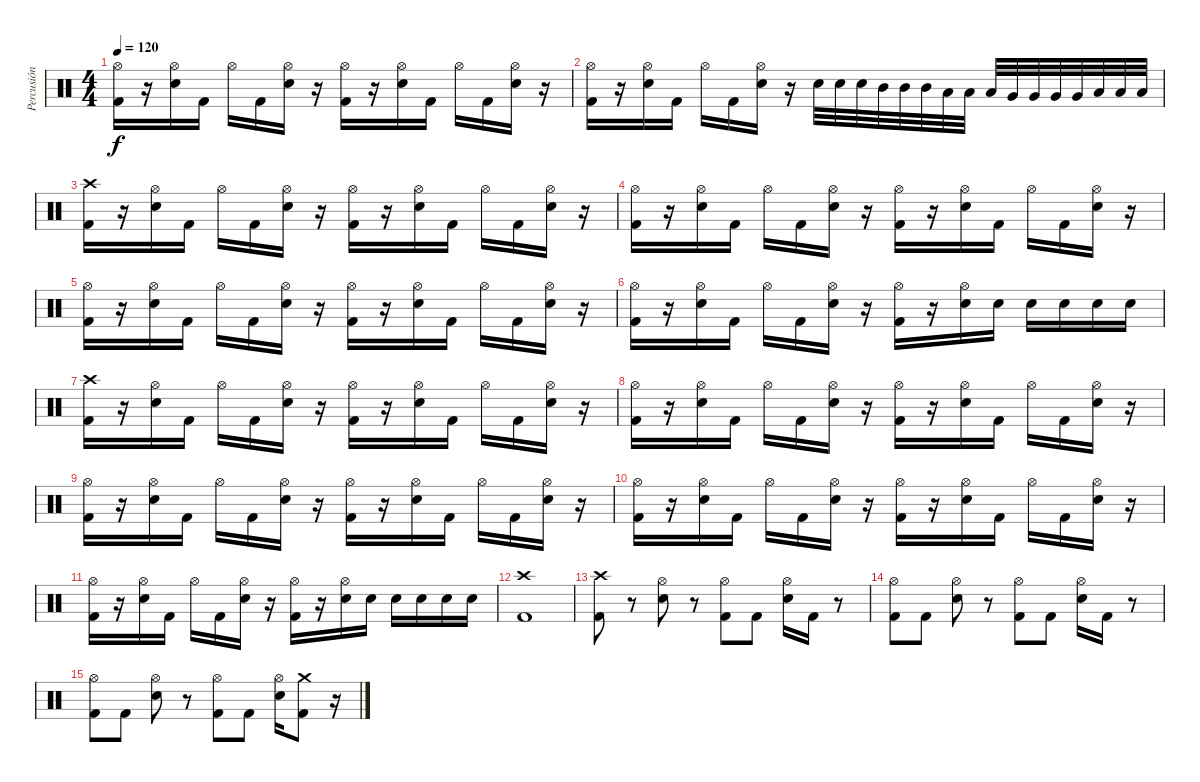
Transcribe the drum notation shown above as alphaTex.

\track ("Percusión" "Percusión") {instrument percussion}
\staff {score}
\articulation defaults
\ts (4 4)
\tempo 120
\clef neutral
\ks c
("Hi-Hat (open)" "Kick (hit) 2").16{dy f} r.16 ("Hi-Hat (open)" "Electric Snare (hit)").16 "Kick (hit) 2".16 "Hi-Hat (open)".16 "Kick (hit) 2".16 ("Hi-Hat (open)" "Electric Snare (hit)").16 r.16 ("Hi-Hat (open)" "Kick (hit) 2").16 r.16 ("Hi-Hat (open)" "Electric Snare (hit)").16 "Kick (hit) 2".16 "Hi-Hat (open)".16 "Kick (hit) 2".16 ("Hi-Hat (open)" "Electric Snare (hit)").16 r.16 |
("Hi-Hat (open)" "Kick (hit) 2").16 r.16 ("Hi-Hat (open)" "Electric Snare (hit)").16 "Kick (hit) 2".16 "Hi-Hat (open)".16 "Kick (hit) 2".16 ("Hi-Hat (open)" "Electric Snare (hit)").16 r.16 "Electric Snare (hit)".32 "Electric Snare (hit)".32 "Electric Snare (hit)".32 "Mid Tom (hit)".32 "Mid Tom (hit)".32 "Mid Tom (hit)".32 "Low Tom (hit)".32 "Low Tom (hit)".32 "Low Tom (hit)".32 "Very Low Tom (hit)".32 "Very Low Tom (hit)".32 "Very Low Tom (hit)".32 "Very Low Tom (hit)".32 "Low Floor Tom (hit)".32 "Low Floor Tom (hit)".32 "Low Floor Tom (hit)".32 |
("Crash high (hit)" "Kick (hit) 2").16 r.16 ("Hi-Hat (open)" "Electric Snare (hit)").16 "Kick (hit) 2".16 "Hi-Hat (open)".16 "Kick (hit) 2".16 ("Hi-Hat (open)" "Electric Snare (hit)").16 r.16 ("Hi-Hat (open)" "Kick (hit) 2").16 r.16 ("Hi-Hat (open)" "Electric Snare (hit)").16 "Kick (hit) 2".16 "Hi-Hat (open)".16 "Kick (hit) 2".16 ("Hi-Hat (open)" "Electric Snare (hit)").16 r.16 |
("Hi-Hat (open)" "Kick (hit) 2").16 r.16 ("Hi-Hat (open)" "Electric Snare (hit)").16 "Kick (hit) 2".16 "Hi-Hat (open)".16 "Kick (hit) 2".16 ("Hi-Hat (open)" "Electric Snare (hit)").16 r.16 ("Hi-Hat (open)" "Kick (hit) 2").16 r.16 ("Hi-Hat (open)" "Electric Snare (hit)").16 "Kick (hit) 2".16 "Hi-Hat (open)".16 "Kick (hit) 2".16 ("Hi-Hat (open)" "Electric Snare (hit)").16 r.16 |
("Hi-Hat (open)" "Kick (hit) 2").16 r.16 ("Hi-Hat (open)" "Electric Snare (hit)").16 "Kick (hit) 2".16 "Hi-Hat (open)".16 "Kick (hit) 2".16 ("Hi-Hat (open)" "Electric Snare (hit)").16 r.16 ("Hi-Hat (open)" "Kick (hit) 2").16 r.16 ("Hi-Hat (open)" "Electric Snare (hit)").16 "Kick (hit) 2".16 "Hi-Hat (open)".16 "Kick (hit) 2".16 ("Hi-Hat (open)" "Electric Snare (hit)").16 r.16 |
("Hi-Hat (open)" "Kick (hit) 2").16 r.16 ("Hi-Hat (open)" "Electric Snare (hit)").16 "Kick (hit) 2".16 "Hi-Hat (open)".16 "Kick (hit) 2".16 ("Hi-Hat (open)" "Electric Snare (hit)").16 r.16 ("Hi-Hat (open)" "Kick (hit) 2").16 r.16 ("Hi-Hat (open)" "Electric Snare (hit)").16 "Electric Snare (hit)".16 "Electric Snare (hit)".16 "Electric Snare (hit)".16 "Electric Snare (hit)".16 "Electric Snare (hit)".16 |
("Crash high (hit)" "Kick (hit) 2").16 r.16 ("Hi-Hat (open)" "Electric Snare (hit)").16 "Kick (hit) 2".16 "Hi-Hat (open)".16 "Kick (hit) 2".16 ("Hi-Hat (open)" "Electric Snare (hit)").16 r.16 ("Hi-Hat (open)" "Kick (hit) 2").16 r.16 ("Hi-Hat (open)" "Electric Snare (hit)").16 "Kick (hit) 2".16 "Hi-Hat (open)".16 "Kick (hit) 2".16 ("Hi-Hat (open)" "Electric Snare (hit)").16 r.16 |
("Hi-Hat (open)" "Kick (hit) 2").16 r.16 ("Hi-Hat (open)" "Electric Snare (hit)").16 "Kick (hit) 2".16 "Hi-Hat (open)".16 "Kick (hit) 2".16 ("Hi-Hat (open)" "Electric Snare (hit)").16 r.16 ("Hi-Hat (open)" "Kick (hit) 2").16 r.16 ("Hi-Hat (open)" "Electric Snare (hit)").16 "Kick (hit) 2".16 "Hi-Hat (open)".16 "Kick (hit) 2".16 ("Hi-Hat (open)" "Electric Snare (hit)").16 r.16 |
("Hi-Hat (open)" "Kick (hit) 2").16 r.16 ("Hi-Hat (open)" "Electric Snare (hit)").16 "Kick (hit) 2".16 "Hi-Hat (open)".16 "Kick (hit) 2".16 ("Hi-Hat (open)" "Electric Snare (hit)").16 r.16 ("Hi-Hat (open)" "Kick (hit) 2").16 r.16 ("Hi-Hat (open)" "Electric Snare (hit)").16 "Kick (hit) 2".16 "Hi-Hat (open)".16 "Kick (hit) 2".16 ("Hi-Hat (open)" "Electric Snare (hit)").16 r.16 |
("Hi-Hat (open)" "Kick (hit) 2").16 r.16 ("Hi-Hat (open)" "Electric Snare (hit)").16 "Kick (hit) 2".16 "Hi-Hat (open)".16 "Kick (hit) 2".16 ("Hi-Hat (open)" "Electric Snare (hit)").16 r.16 ("Hi-Hat (open)" "Kick (hit) 2").16 r.16 ("Hi-Hat (open)" "Electric Snare (hit)").16 "Kick (hit) 2".16 "Hi-Hat (open)".16 "Kick (hit) 2".16 ("Hi-Hat (open)" "Electric Snare (hit)").16 r.16 |
("Hi-Hat (open)" "Kick (hit) 2").16 r.16 ("Hi-Hat (open)" "Electric Snare (hit)").16 "Kick (hit) 2".16 "Hi-Hat (open)".16 "Kick (hit) 2".16 ("Hi-Hat (open)" "Electric Snare (hit)").16 r.16 ("Hi-Hat (open)" "Kick (hit) 2").16 r.16 ("Hi-Hat (open)" "Electric Snare (hit)").16 "Electric Snare (hit)".16 "Electric Snare (hit)".16 "Electric Snare (hit)".16 "Electric Snare (hit)".16 "Electric Snare (hit)".16 |
("Crash high (hit)" "Kick (hit) 2").1 |
("Crash high (hit)" "Kick (hit) 2").8 r.8 ("Hi-Hat (open)" "Electric Snare (hit)").8 r.8 ("Hi-Hat (open)" "Kick (hit) 2").8 "Kick (hit) 2".8 ("Hi-Hat (open)" "Electric Snare (hit)").16 "Kick (hit) 2".16 r.8 |
("Hi-Hat (open)" "Kick (hit) 2").8 "Kick (hit) 2".8 ("Hi-Hat (open)" "Electric Snare (hit)").8 r.8 ("Hi-Hat (open)" "Kick (hit) 2").8 "Kick (hit) 2".8 ("Hi-Hat (open)" "Electric Snare (hit)").16 "Kick (hit) 2".16 r.8 |
("Hi-Hat (open)" "Kick (hit) 2").8 "Kick (hit) 2".8 ("Hi-Hat (open)" "Electric Snare (hit)").8 r.8 ("Hi-Hat (open)" "Kick (hit) 2").8 "Kick (hit) 2".8 ("Hi-Hat (open)" "Electric Snare (hit)").16 ("Crash medium (hit)" "Kick (hit) 2").8 r.16
